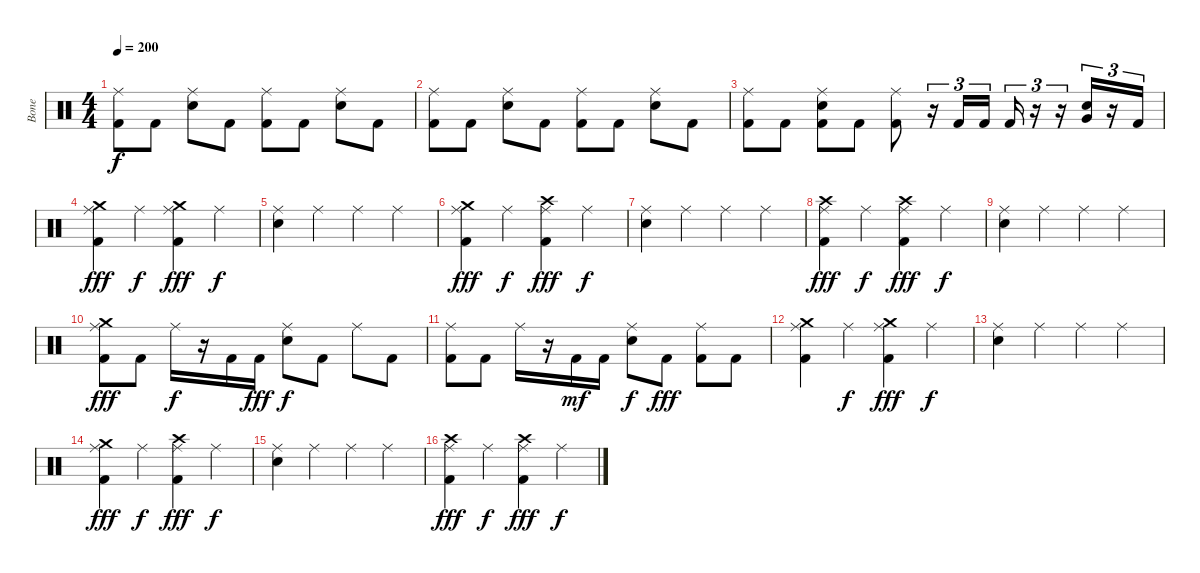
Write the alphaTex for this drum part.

\track ("Bone " "Bone ") {instrument percussion}
\staff {score}
\articulation defaults
\ts (4 4)
\tempo 200
\clef neutral
\ks c
("Ride (middle)" "Kick (hit) 2").8{dy f} "Kick (hit) 2".8 ("Ride (middle)" "Electric Snare (hit)").8 "Kick (hit) 2".8 ("Ride (middle)" "Kick (hit) 2").8 "Kick (hit) 2".8 ("Ride (middle)" "Electric Snare (hit)").8 "Kick (hit) 2".8 |
("Ride (middle)" "Kick (hit) 2").8 "Kick (hit) 2".8 ("Ride (middle)" "Electric Snare (hit)").8 "Kick (hit) 2".8 ("Ride (middle)" "Kick (hit) 2").8 "Kick (hit) 2".8 ("Ride (middle)" "Electric Snare (hit)").8 "Kick (hit) 2".8 |
("Ride (middle)" "Kick (hit) 2").8 "Kick (hit) 2".8 ("Ride (middle)" "Electric Snare (hit)" "Kick (hit) 2").8 "Kick (hit) 2".8 ("Ride (middle)" "Kick (hit) 2").8 r.16{tu (3 2)} "Kick (hit) 2".16{tu (3 2)} "Kick (hit) 2".16{tu (3 2)} "Kick (hit) 2".16{tu (3 2)} r.16{tu (3 2)} r.16{tu (3 2)} ("Very Low Tom (hit)" "Electric Snare (hit)").16{tu (3 2)} r.16{tu (3 2)} "Kick (hit) 2".16{tu (3 2)} |
("Ride (middle)" "Crash medium (hit)" "Kick (hit) 2").4{dy fff} "Ride (middle)".4{dy f} ("Ride (middle)" "Crash medium (hit)" "Kick (hit) 2").4{dy fff} "Ride (middle)".4{dy f} |
("Ride (middle)" "Electric Snare (hit)").4 "Ride (middle)".4 "Ride (middle)".4 "Ride (middle)".4 |
("Ride (middle)" "Crash medium (hit)" "Kick (hit) 2").4{dy fff} "Ride (middle)".4{dy f} ("Ride (middle)" "Crash high (hit)" "Kick (hit) 2").4{dy fff} "Ride (middle)".4{dy f} |
("Ride (middle)" "Electric Snare (hit)").4 "Ride (middle)".4 "Ride (middle)".4 "Ride (middle)".4 |
("Ride (middle)" "Crash high (hit)" "Kick (hit) 2").4{dy fff} "Ride (middle)".4{dy f} ("Ride (middle)" "Crash high (hit)" "Kick (hit) 2").4{dy fff} "Ride (middle)".4{dy f} |
("Ride (middle)" "Electric Snare (hit)").4 "Ride (middle)".4 "Ride (middle)".4 "Ride (middle)".4 |
("Ride (middle)" "Crash medium (hit)" "Kick (hit) 2").8{dy fff} "Kick (hit) 2".8 "Ride (middle)".16{dy f} r.16 "Kick (hit) 2".16 "Kick (hit) 2".16{dy fff} ("Ride (middle)" "Electric Snare (hit)").8{dy f} "Kick (hit) 2".8 "Ride (middle)".8 "Kick (hit) 2".8 |
("Ride (middle)" "Kick (hit) 2").8 "Kick (hit) 2".8 "Ride (middle)".16 r.16 "Kick (hit) 2".16{dy mf} "Kick (hit) 2".16 ("Ride (middle)" "Electric Snare (hit)").8{dy f} "Kick (hit) 2".8{dy fff} ("Ride (middle)" "Kick (hit) 2").8 "Kick (hit) 2".8 |
("Ride (middle)" "Crash medium (hit)" "Kick (hit) 2").4 "Ride (middle)".4{dy f} ("Ride (middle)" "Crash medium (hit)" "Kick (hit) 2").4{dy fff} "Ride (middle)".4{dy f} |
("Ride (middle)" "Electric Snare (hit)").4 "Ride (middle)".4 "Ride (middle)".4 "Ride (middle)".4 |
("Ride (middle)" "Crash medium (hit)" "Kick (hit) 2").4{dy fff} "Ride (middle)".4{dy f} ("Ride (middle)" "Crash high (hit)" "Kick (hit) 2").4{dy fff} "Ride (middle)".4{dy f} |
("Ride (middle)" "Electric Snare (hit)").4 "Ride (middle)".4 "Ride (middle)".4 "Ride (middle)".4 |
("Ride (middle)" "Crash high (hit)" "Kick (hit) 2").4{dy fff} "Ride (middle)".4{dy f} ("Ride (middle)" "Crash high (hit)" "Kick (hit) 2").4{dy fff} "Ride (middle)".4{dy f}
